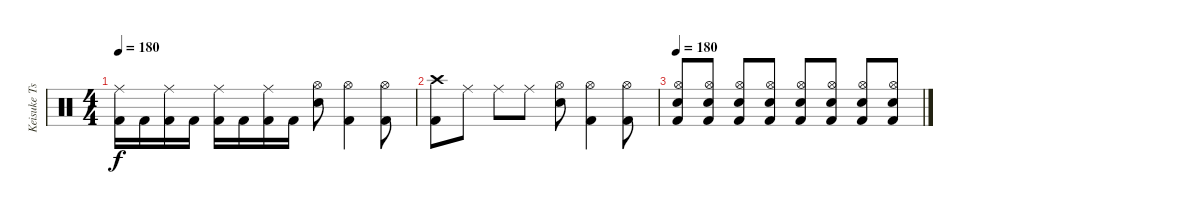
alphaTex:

\track ("Keisuke Tsuboi" "Keisuke Ts") {instrument percussion}
\staff {score}
\articulation defaults
\ts (4 4)
\tempo 180
\clef neutral
\ks c
("Ride (middle)" "Kick (hit) 2").16{dy f} "Kick (hit) 2".16 ("Ride (middle)" "Kick (hit) 2").16 "Kick (hit) 2".16 ("Ride (middle)" "Kick (hit) 2").16 "Kick (hit) 2".16 ("Ride (middle)" "Kick (hit) 2").16 "Kick (hit) 2".16 ("Hi-Hat (open)" "Electric Snare (hit)").8 ("Hi-Hat (open)" "Kick (hit) 2").4 ("Hi-Hat (open)" "Kick (hit) 2").8 |
("Crash high (hit)" "Kick (hit) 2").8 "Ride (middle)".8 "Ride (middle)".8 "Ride (middle)".8 ("Hi-Hat (open)" "Electric Snare (hit)").8 ("Hi-Hat (open)" "Kick (hit) 2").4 ("Hi-Hat (open)" "Kick (hit) 2").8 |
\tempo 180
("Hi-Hat (open)" "Electric Snare (hit)" "Kick (hit) 2").8 ("Hi-Hat (open)" "Electric Snare (hit)" "Kick (hit) 2").8 ("Hi-Hat (open)" "Electric Snare (hit)" "Kick (hit) 2").8 ("Hi-Hat (open)" "Electric Snare (hit)" "Kick (hit) 2").8 ("Hi-Hat (open)" "Electric Snare (hit)" "Kick (hit) 2").8 ("Hi-Hat (open)" "Electric Snare (hit)" "Kick (hit) 2").8 ("Hi-Hat (open)" "Electric Snare (hit)" "Kick (hit) 2").8 ("Hi-Hat (open)" "Electric Snare (hit)" "Kick (hit) 2").8
